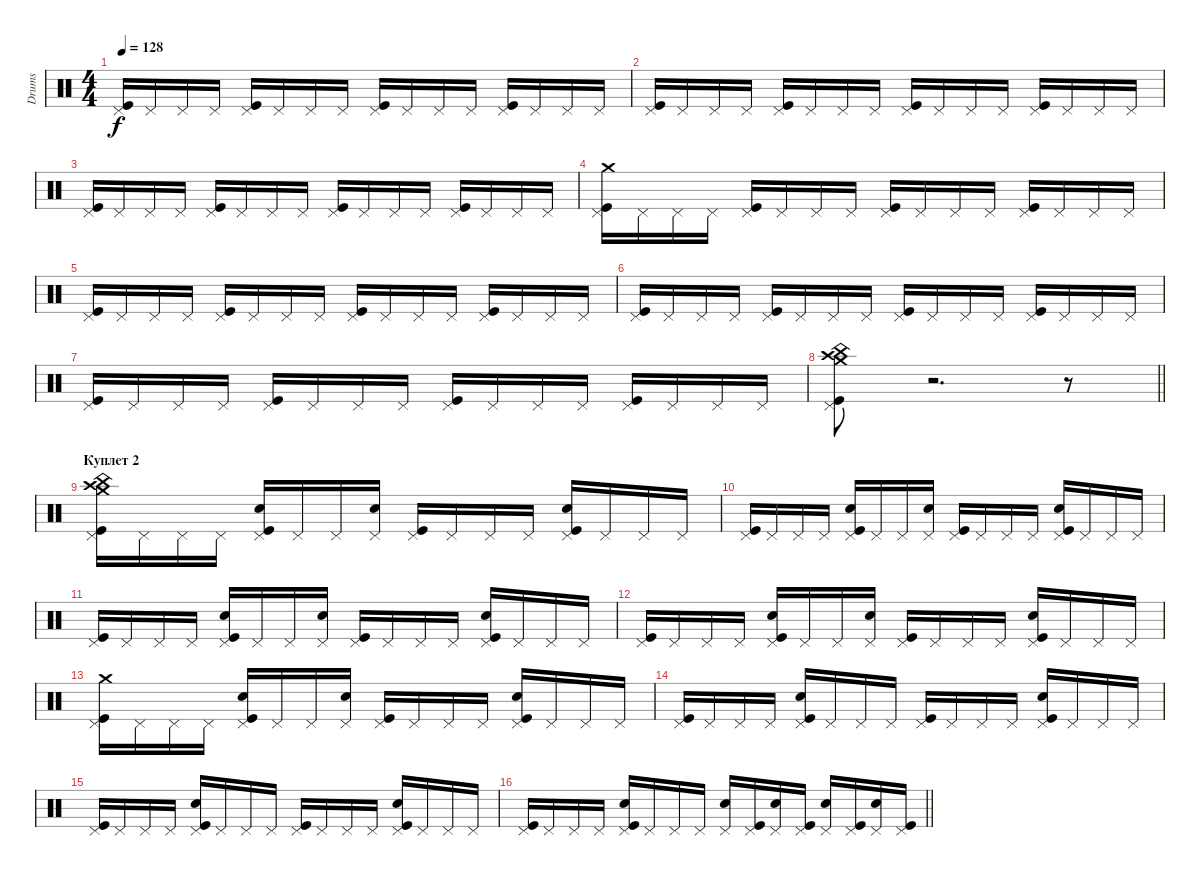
\track ("Drums" "Drums") {instrument percussion}
\staff {score}
\articulation defaults
\ts (4 4)
\tempo 128
\clef neutral
\ks c
("Kick (hit)" "Pedal Hi-Hat (hit)").16{dy f} "Pedal Hi-Hat (hit)".16 "Pedal Hi-Hat (hit)".16 "Pedal Hi-Hat (hit)".16 ("Kick (hit)" "Pedal Hi-Hat (hit)").16 "Pedal Hi-Hat (hit)".16 "Pedal Hi-Hat (hit)".16 "Pedal Hi-Hat (hit)".16 ("Kick (hit)" "Pedal Hi-Hat (hit)").16 "Pedal Hi-Hat (hit)".16 "Pedal Hi-Hat (hit)".16 "Pedal Hi-Hat (hit)".16 ("Kick (hit)" "Pedal Hi-Hat (hit)").16 "Pedal Hi-Hat (hit)".16 "Pedal Hi-Hat (hit)".16 "Pedal Hi-Hat (hit)".16 |
("Kick (hit)" "Pedal Hi-Hat (hit)").16 "Pedal Hi-Hat (hit)".16 "Pedal Hi-Hat (hit)".16 "Pedal Hi-Hat (hit)".16 ("Kick (hit)" "Pedal Hi-Hat (hit)").16 "Pedal Hi-Hat (hit)".16 "Pedal Hi-Hat (hit)".16 "Pedal Hi-Hat (hit)".16 ("Kick (hit)" "Pedal Hi-Hat (hit)").16 "Pedal Hi-Hat (hit)".16 "Pedal Hi-Hat (hit)".16 "Pedal Hi-Hat (hit)".16 ("Kick (hit)" "Pedal Hi-Hat (hit)").16 "Pedal Hi-Hat (hit)".16 "Pedal Hi-Hat (hit)".16 "Pedal Hi-Hat (hit)".16 |
("Kick (hit)" "Pedal Hi-Hat (hit)").16 "Pedal Hi-Hat (hit)".16 "Pedal Hi-Hat (hit)".16 "Pedal Hi-Hat (hit)".16 ("Kick (hit)" "Pedal Hi-Hat (hit)").16 "Pedal Hi-Hat (hit)".16 "Pedal Hi-Hat (hit)".16 "Pedal Hi-Hat (hit)".16 ("Kick (hit)" "Pedal Hi-Hat (hit)").16 "Pedal Hi-Hat (hit)".16 "Pedal Hi-Hat (hit)".16 "Pedal Hi-Hat (hit)".16 ("Kick (hit)" "Pedal Hi-Hat (hit)").16 "Pedal Hi-Hat (hit)".16 "Pedal Hi-Hat (hit)".16 "Pedal Hi-Hat (hit)".16 |
("Kick (hit)" "Pedal Hi-Hat (hit)" "Crash medium (hit)").16 "Pedal Hi-Hat (hit)".16 "Pedal Hi-Hat (hit)".16 "Pedal Hi-Hat (hit)".16 ("Kick (hit)" "Pedal Hi-Hat (hit)").16 "Pedal Hi-Hat (hit)".16 "Pedal Hi-Hat (hit)".16 "Pedal Hi-Hat (hit)".16 ("Kick (hit)" "Pedal Hi-Hat (hit)").16 "Pedal Hi-Hat (hit)".16 "Pedal Hi-Hat (hit)".16 "Pedal Hi-Hat (hit)".16 ("Kick (hit)" "Pedal Hi-Hat (hit)").16 "Pedal Hi-Hat (hit)".16 "Pedal Hi-Hat (hit)".16 "Pedal Hi-Hat (hit)".16 |
("Kick (hit)" "Pedal Hi-Hat (hit)").16 "Pedal Hi-Hat (hit)".16 "Pedal Hi-Hat (hit)".16 "Pedal Hi-Hat (hit)".16 ("Kick (hit)" "Pedal Hi-Hat (hit)").16 "Pedal Hi-Hat (hit)".16 "Pedal Hi-Hat (hit)".16 "Pedal Hi-Hat (hit)".16 ("Kick (hit)" "Pedal Hi-Hat (hit)").16 "Pedal Hi-Hat (hit)".16 "Pedal Hi-Hat (hit)".16 "Pedal Hi-Hat (hit)".16 ("Kick (hit)" "Pedal Hi-Hat (hit)").16 "Pedal Hi-Hat (hit)".16 "Pedal Hi-Hat (hit)".16 "Pedal Hi-Hat (hit)".16 |
("Kick (hit)" "Pedal Hi-Hat (hit)").16 "Pedal Hi-Hat (hit)".16 "Pedal Hi-Hat (hit)".16 "Pedal Hi-Hat (hit)".16 ("Kick (hit)" "Pedal Hi-Hat (hit)").16 "Pedal Hi-Hat (hit)".16 "Pedal Hi-Hat (hit)".16 "Pedal Hi-Hat (hit)".16 ("Kick (hit)" "Pedal Hi-Hat (hit)").16 "Pedal Hi-Hat (hit)".16 "Pedal Hi-Hat (hit)".16 "Pedal Hi-Hat (hit)".16 ("Kick (hit)" "Pedal Hi-Hat (hit)").16 "Pedal Hi-Hat (hit)".16 "Pedal Hi-Hat (hit)".16 "Pedal Hi-Hat (hit)".16 |
("Kick (hit)" "Pedal Hi-Hat (hit)").16 "Pedal Hi-Hat (hit)".16 "Pedal Hi-Hat (hit)".16 "Pedal Hi-Hat (hit)".16 ("Kick (hit)" "Pedal Hi-Hat (hit)").16 "Pedal Hi-Hat (hit)".16 "Pedal Hi-Hat (hit)".16 "Pedal Hi-Hat (hit)".16 ("Kick (hit)" "Pedal Hi-Hat (hit)").16 "Pedal Hi-Hat (hit)".16 "Pedal Hi-Hat (hit)".16 "Pedal Hi-Hat (hit)".16 ("Kick (hit)" "Pedal Hi-Hat (hit)").16 "Pedal Hi-Hat (hit)".16 "Pedal Hi-Hat (hit)".16 "Pedal Hi-Hat (hit)".16 |
\barLineRight lightlight
("Kick (hit)" "Pedal Hi-Hat (hit)" "Crash medium (hit)" "China (hit)" "Crash high (hit)").8 r.2{d} r.8 |
\section ("" "Куплет 2")
("Kick (hit)" "Pedal Hi-Hat (hit)" "Crash medium (hit)" "China (hit)" "Crash high (hit)").16 "Pedal Hi-Hat (hit)".16 "Pedal Hi-Hat (hit)".16 "Pedal Hi-Hat (hit)".16 ("Kick (hit)" "Pedal Hi-Hat (hit)" "Snare (hit) 2").16 "Pedal Hi-Hat (hit)".16 "Pedal Hi-Hat (hit)".16 ("Pedal Hi-Hat (hit)" "Snare (hit) 2").16 ("Kick (hit)" "Pedal Hi-Hat (hit)").16 "Pedal Hi-Hat (hit)".16 "Pedal Hi-Hat (hit)".16 "Pedal Hi-Hat (hit)".16 ("Kick (hit)" "Pedal Hi-Hat (hit)" "Snare (hit) 2").16 "Pedal Hi-Hat (hit)".16 "Pedal Hi-Hat (hit)".16 "Pedal Hi-Hat (hit)".16 |
("Kick (hit)" "Pedal Hi-Hat (hit)").16 "Pedal Hi-Hat (hit)".16 "Pedal Hi-Hat (hit)".16 "Pedal Hi-Hat (hit)".16 ("Kick (hit)" "Pedal Hi-Hat (hit)" "Snare (hit) 2").16 "Pedal Hi-Hat (hit)".16 "Pedal Hi-Hat (hit)".16 ("Pedal Hi-Hat (hit)" "Snare (hit) 2").16 ("Kick (hit)" "Pedal Hi-Hat (hit)").16 "Pedal Hi-Hat (hit)".16 "Pedal Hi-Hat (hit)".16 "Pedal Hi-Hat (hit)".16 ("Kick (hit)" "Pedal Hi-Hat (hit)" "Snare (hit) 2").16 "Pedal Hi-Hat (hit)".16 "Pedal Hi-Hat (hit)".16 "Pedal Hi-Hat (hit)".16 |
("Kick (hit)" "Pedal Hi-Hat (hit)").16 "Pedal Hi-Hat (hit)".16 "Pedal Hi-Hat (hit)".16 "Pedal Hi-Hat (hit)".16 ("Kick (hit)" "Pedal Hi-Hat (hit)" "Snare (hit) 2").16 "Pedal Hi-Hat (hit)".16 "Pedal Hi-Hat (hit)".16 ("Pedal Hi-Hat (hit)" "Snare (hit) 2").16 ("Kick (hit)" "Pedal Hi-Hat (hit)").16 "Pedal Hi-Hat (hit)".16 "Pedal Hi-Hat (hit)".16 "Pedal Hi-Hat (hit)".16 ("Kick (hit)" "Pedal Hi-Hat (hit)" "Snare (hit) 2").16 "Pedal Hi-Hat (hit)".16 "Pedal Hi-Hat (hit)".16 "Pedal Hi-Hat (hit)".16 |
("Kick (hit)" "Pedal Hi-Hat (hit)").16 "Pedal Hi-Hat (hit)".16 "Pedal Hi-Hat (hit)".16 "Pedal Hi-Hat (hit)".16 ("Kick (hit)" "Pedal Hi-Hat (hit)" "Snare (hit) 2").16 "Pedal Hi-Hat (hit)".16 "Pedal Hi-Hat (hit)".16 ("Pedal Hi-Hat (hit)" "Snare (hit) 2").16 ("Kick (hit)" "Pedal Hi-Hat (hit)").16 "Pedal Hi-Hat (hit)".16 "Pedal Hi-Hat (hit)".16 "Pedal Hi-Hat (hit)".16 ("Kick (hit)" "Pedal Hi-Hat (hit)" "Snare (hit) 2").16 "Pedal Hi-Hat (hit)".16 "Pedal Hi-Hat (hit)".16 "Pedal Hi-Hat (hit)".16 |
("Kick (hit)" "Pedal Hi-Hat (hit)" "Crash medium (hit)").16 "Pedal Hi-Hat (hit)".16 "Pedal Hi-Hat (hit)".16 "Pedal Hi-Hat (hit)".16 ("Kick (hit)" "Pedal Hi-Hat (hit)" "Snare (hit) 2").16 "Pedal Hi-Hat (hit)".16 "Pedal Hi-Hat (hit)".16 ("Pedal Hi-Hat (hit)" "Snare (hit) 2").16 ("Kick (hit)" "Pedal Hi-Hat (hit)").16 "Pedal Hi-Hat (hit)".16 "Pedal Hi-Hat (hit)".16 "Pedal Hi-Hat (hit)".16 ("Kick (hit)" "Pedal Hi-Hat (hit)" "Snare (hit) 2").16 "Pedal Hi-Hat (hit)".16 "Pedal Hi-Hat (hit)".16 "Pedal Hi-Hat (hit)".16 |
("Kick (hit)" "Pedal Hi-Hat (hit)").16 "Pedal Hi-Hat (hit)".16 "Pedal Hi-Hat (hit)".16 "Pedal Hi-Hat (hit)".16 ("Kick (hit)" "Pedal Hi-Hat (hit)" "Snare (hit) 2").16 "Pedal Hi-Hat (hit)".16 "Pedal Hi-Hat (hit)".16 "Pedal Hi-Hat (hit)".16 ("Kick (hit)" "Pedal Hi-Hat (hit)").16 "Pedal Hi-Hat (hit)".16 "Pedal Hi-Hat (hit)".16 "Pedal Hi-Hat (hit)".16 ("Kick (hit)" "Pedal Hi-Hat (hit)" "Snare (hit) 2").16 "Pedal Hi-Hat (hit)".16 "Pedal Hi-Hat (hit)".16 "Pedal Hi-Hat (hit)".16 |
("Kick (hit)" "Pedal Hi-Hat (hit)").16 "Pedal Hi-Hat (hit)".16 "Pedal Hi-Hat (hit)".16 "Pedal Hi-Hat (hit)".16 ("Kick (hit)" "Pedal Hi-Hat (hit)" "Snare (hit) 2").16 "Pedal Hi-Hat (hit)".16 "Pedal Hi-Hat (hit)".16 "Pedal Hi-Hat (hit)".16 ("Kick (hit)" "Pedal Hi-Hat (hit)").16 "Pedal Hi-Hat (hit)".16 "Pedal Hi-Hat (hit)".16 "Pedal Hi-Hat (hit)".16 ("Kick (hit)" "Pedal Hi-Hat (hit)" "Snare (hit) 2").16 "Pedal Hi-Hat (hit)".16 "Pedal Hi-Hat (hit)".16 "Pedal Hi-Hat (hit)".16 |
\barLineRight lightlight
("Kick (hit)" "Pedal Hi-Hat (hit)").16 "Pedal Hi-Hat (hit)".16 "Pedal Hi-Hat (hit)".16 "Pedal Hi-Hat (hit)".16 ("Kick (hit)" "Pedal Hi-Hat (hit)" "Snare (hit) 2").16 "Pedal Hi-Hat (hit)".16 "Pedal Hi-Hat (hit)".16 "Pedal Hi-Hat (hit)".16 ("Pedal Hi-Hat (hit)" "Snare (hit) 2").16 ("Kick (hit)" "Pedal Hi-Hat (hit)").16 ("Pedal Hi-Hat (hit)" "Snare (hit) 2").16 ("Kick (hit)" "Pedal Hi-Hat (hit)").16 ("Pedal Hi-Hat (hit)" "Snare (hit) 2").16 ("Kick (hit)" "Pedal Hi-Hat (hit)").16 ("Pedal Hi-Hat (hit)" "Snare (hit) 2").16 ("Kick (hit)" "Pedal Hi-Hat (hit)").16
